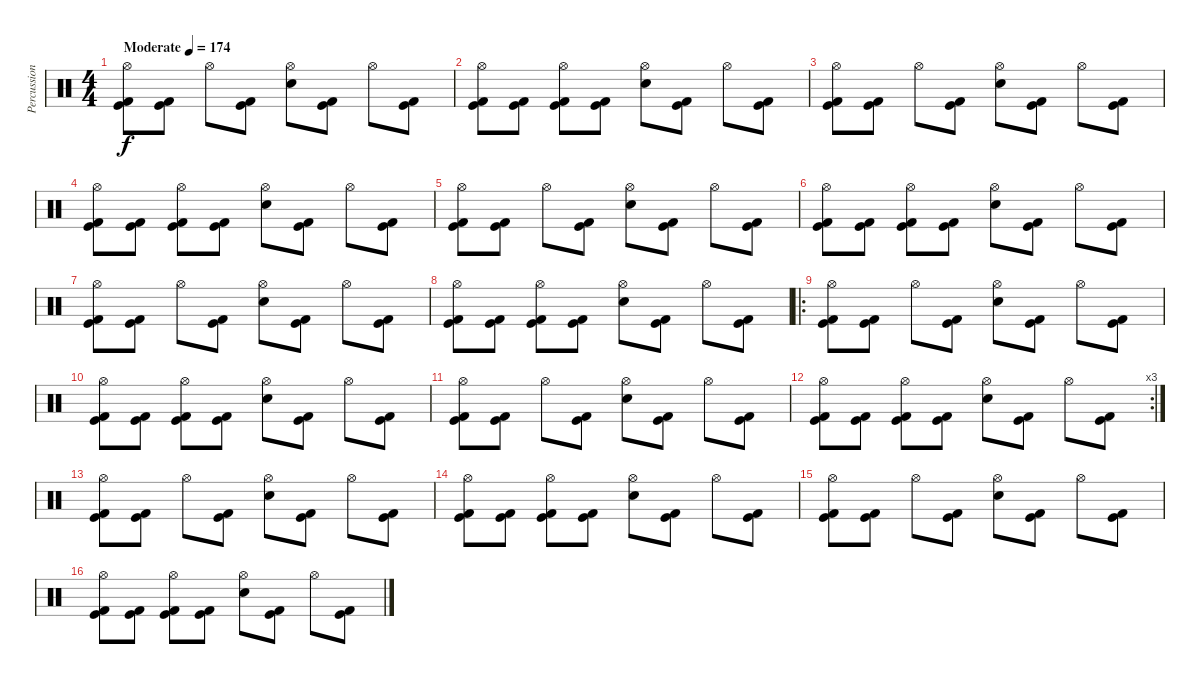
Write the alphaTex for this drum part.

\track ("Percussion" "Percussion") {instrument percussion}
\staff {score}
\articulation defaults
\ts (4 4)
\tempo (174 "Moderate")
\clef neutral
\ks c
("Hi-Hat (open)" "Kick (hit) 2" "Kick (hit)").8{dy f} ("Kick (hit) 2" "Kick (hit)").8 "Hi-Hat (open)".8 ("Kick (hit) 2" "Kick (hit)").8 ("Hi-Hat (open)" "Electric Snare (hit)").8 ("Kick (hit) 2" "Kick (hit)").8 "Hi-Hat (open)".8 ("Kick (hit) 2" "Kick (hit)").8 |
("Hi-Hat (open)" "Kick (hit) 2" "Kick (hit)").8 ("Kick (hit) 2" "Kick (hit)").8 ("Hi-Hat (open)" "Kick (hit) 2" "Kick (hit)").8 ("Kick (hit) 2" "Kick (hit)").8 ("Hi-Hat (open)" "Electric Snare (hit)").8 ("Kick (hit) 2" "Kick (hit)").8 "Hi-Hat (open)".8 ("Kick (hit) 2" "Kick (hit)").8 |
("Hi-Hat (open)" "Kick (hit) 2" "Kick (hit)").8 ("Kick (hit) 2" "Kick (hit)").8 "Hi-Hat (open)".8 ("Kick (hit) 2" "Kick (hit)").8 ("Hi-Hat (open)" "Electric Snare (hit)").8 ("Kick (hit) 2" "Kick (hit)").8 "Hi-Hat (open)".8 ("Kick (hit) 2" "Kick (hit)").8 |
("Hi-Hat (open)" "Kick (hit) 2" "Kick (hit)").8 ("Kick (hit) 2" "Kick (hit)").8 ("Hi-Hat (open)" "Kick (hit) 2" "Kick (hit)").8 ("Kick (hit) 2" "Kick (hit)").8 ("Hi-Hat (open)" "Electric Snare (hit)").8 ("Kick (hit) 2" "Kick (hit)").8 "Hi-Hat (open)".8 ("Kick (hit) 2" "Kick (hit)").8 |
("Hi-Hat (open)" "Kick (hit) 2" "Kick (hit)").8 ("Kick (hit) 2" "Kick (hit)").8 "Hi-Hat (open)".8 ("Kick (hit) 2" "Kick (hit)").8 ("Hi-Hat (open)" "Electric Snare (hit)").8 ("Kick (hit) 2" "Kick (hit)").8 "Hi-Hat (open)".8 ("Kick (hit) 2" "Kick (hit)").8 |
("Hi-Hat (open)" "Kick (hit) 2" "Kick (hit)").8 ("Kick (hit) 2" "Kick (hit)").8 ("Hi-Hat (open)" "Kick (hit) 2" "Kick (hit)").8 ("Kick (hit) 2" "Kick (hit)").8 ("Hi-Hat (open)" "Electric Snare (hit)").8 ("Kick (hit) 2" "Kick (hit)").8 "Hi-Hat (open)".8 ("Kick (hit) 2" "Kick (hit)").8 |
("Hi-Hat (open)" "Kick (hit) 2" "Kick (hit)").8 ("Kick (hit) 2" "Kick (hit)").8 "Hi-Hat (open)".8 ("Kick (hit) 2" "Kick (hit)").8 ("Hi-Hat (open)" "Electric Snare (hit)").8 ("Kick (hit) 2" "Kick (hit)").8 "Hi-Hat (open)".8 ("Kick (hit) 2" "Kick (hit)").8 |
("Hi-Hat (open)" "Kick (hit) 2" "Kick (hit)").8 ("Kick (hit) 2" "Kick (hit)").8 ("Hi-Hat (open)" "Kick (hit) 2" "Kick (hit)").8 ("Kick (hit) 2" "Kick (hit)").8 ("Hi-Hat (open)" "Electric Snare (hit)").8 ("Kick (hit) 2" "Kick (hit)").8 "Hi-Hat (open)".8 ("Kick (hit) 2" "Kick (hit)").8 |
\ro
("Hi-Hat (open)" "Kick (hit) 2" "Kick (hit)").8 ("Kick (hit) 2" "Kick (hit)").8 "Hi-Hat (open)".8 ("Kick (hit) 2" "Kick (hit)").8 ("Hi-Hat (open)" "Electric Snare (hit)").8 ("Kick (hit) 2" "Kick (hit)").8 "Hi-Hat (open)".8 ("Kick (hit) 2" "Kick (hit)").8 |
("Hi-Hat (open)" "Kick (hit) 2" "Kick (hit)").8 ("Kick (hit) 2" "Kick (hit)").8 ("Hi-Hat (open)" "Kick (hit) 2" "Kick (hit)").8 ("Kick (hit) 2" "Kick (hit)").8 ("Hi-Hat (open)" "Electric Snare (hit)").8 ("Kick (hit) 2" "Kick (hit)").8 "Hi-Hat (open)".8 ("Kick (hit) 2" "Kick (hit)").8 |
("Hi-Hat (open)" "Kick (hit) 2" "Kick (hit)").8 ("Kick (hit) 2" "Kick (hit)").8 "Hi-Hat (open)".8 ("Kick (hit) 2" "Kick (hit)").8 ("Hi-Hat (open)" "Electric Snare (hit)").8 ("Kick (hit) 2" "Kick (hit)").8 "Hi-Hat (open)".8 ("Kick (hit) 2" "Kick (hit)").8 |
\rc 3
("Hi-Hat (open)" "Kick (hit) 2" "Kick (hit)").8 ("Kick (hit) 2" "Kick (hit)").8 ("Hi-Hat (open)" "Kick (hit) 2" "Kick (hit)").8 ("Kick (hit) 2" "Kick (hit)").8 ("Hi-Hat (open)" "Electric Snare (hit)").8 ("Kick (hit) 2" "Kick (hit)").8 "Hi-Hat (open)".8 ("Kick (hit) 2" "Kick (hit)").8 |
("Hi-Hat (open)" "Kick (hit) 2" "Kick (hit)").8 ("Kick (hit) 2" "Kick (hit)").8 "Hi-Hat (open)".8 ("Kick (hit) 2" "Kick (hit)").8 ("Hi-Hat (open)" "Electric Snare (hit)").8 ("Kick (hit) 2" "Kick (hit)").8 "Hi-Hat (open)".8 ("Kick (hit) 2" "Kick (hit)").8 |
("Hi-Hat (open)" "Kick (hit) 2" "Kick (hit)").8 ("Kick (hit) 2" "Kick (hit)").8 ("Hi-Hat (open)" "Kick (hit) 2" "Kick (hit)").8 ("Kick (hit) 2" "Kick (hit)").8 ("Hi-Hat (open)" "Electric Snare (hit)").8 ("Kick (hit) 2" "Kick (hit)").8 "Hi-Hat (open)".8 ("Kick (hit) 2" "Kick (hit)").8 |
("Hi-Hat (open)" "Kick (hit) 2" "Kick (hit)").8 ("Kick (hit) 2" "Kick (hit)").8 "Hi-Hat (open)".8 ("Kick (hit) 2" "Kick (hit)").8 ("Hi-Hat (open)" "Electric Snare (hit)").8 ("Kick (hit) 2" "Kick (hit)").8 "Hi-Hat (open)".8 ("Kick (hit) 2" "Kick (hit)").8 |
("Hi-Hat (open)" "Kick (hit) 2" "Kick (hit)").8 ("Kick (hit) 2" "Kick (hit)").8 ("Hi-Hat (open)" "Kick (hit) 2" "Kick (hit)").8 ("Kick (hit) 2" "Kick (hit)").8 ("Hi-Hat (open)" "Electric Snare (hit)").8 ("Kick (hit) 2" "Kick (hit)").8 "Hi-Hat (open)".8 ("Kick (hit) 2" "Kick (hit)").8
